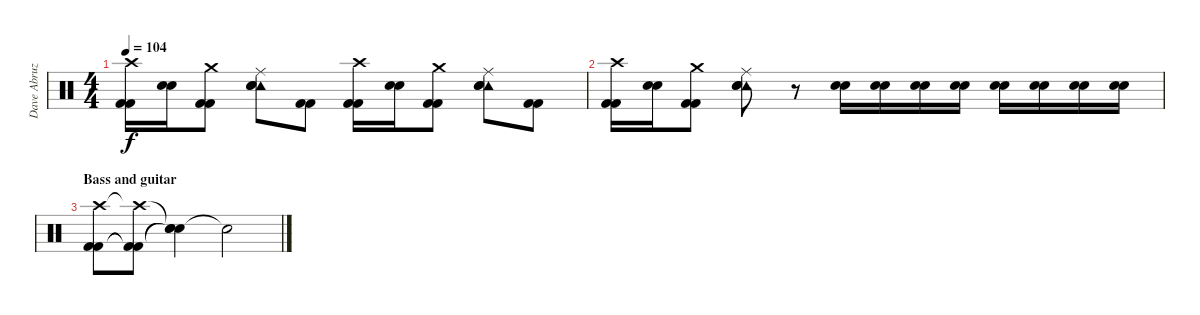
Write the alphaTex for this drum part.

\track ("Dave Abruzzese" "Dave Abruz") {instrument percussion}
\staff {score}
\articulation defaults
\ts (4 4)
\tempo 104
\clef neutral
\ks c
("Crash high (hit)" "Kick (hit) 2" "Kick (hit) 2").16{dy f} ("Electric Snare (hit)" "Electric Snare (hit)").16 ("Crash medium (hit)" "Kick (hit) 2" "Kick (hit) 2").8 ("Tambourine (hit)" "Ride (middle)" "Electric Snare (hit)" "Electric Snare (hit)").8 ("Kick (hit) 2" "Kick (hit) 2").8 ("Crash high (hit)" "Kick (hit) 2" "Kick (hit) 2").16 ("Electric Snare (hit)" "Electric Snare (hit)").16 ("Crash medium (hit)" "Kick (hit) 2" "Kick (hit) 2").8 ("Tambourine (hit)" "Ride (middle)" "Electric Snare (hit)" "Electric Snare (hit)").8 ("Kick (hit) 2" "Kick (hit) 2").8 |
("Crash high (hit)" "Kick (hit) 2" "Kick (hit) 2").16 ("Electric Snare (hit)" "Electric Snare (hit)").16 ("Crash medium (hit)" "Kick (hit) 2" "Kick (hit) 2").8 ("Tambourine (hit)" "Ride (middle)" "Electric Snare (hit)" "Electric Snare (hit)").8 r.8 ("Electric Snare (hit)" "Electric Snare (hit)").16 ("Electric Snare (hit)" "Electric Snare (hit)").16 ("Electric Snare (hit)" "Electric Snare (hit)").16 ("Electric Snare (hit)" "Electric Snare (hit)").16 ("Electric Snare (hit)" "Electric Snare (hit)").16 ("Electric Snare (hit)" "Electric Snare (hit)").16 ("Electric Snare (hit)" "Electric Snare (hit)").16 ("Electric Snare (hit)" "Electric Snare (hit)").16 |
\section ("" "Bass and guitar")
("Crash high (hit)" "Kick (hit) 2" "Kick (hit) 2").8 ("Crash high (hit)"{t} "Kick (hit) 2"{t} "Kick (hit) 2"{t}).8 ("Snare (hit)"{t} "Snare (hit)"{t} "Snare (hit)"{t}).4 "Snare (hit)"{t}.2
